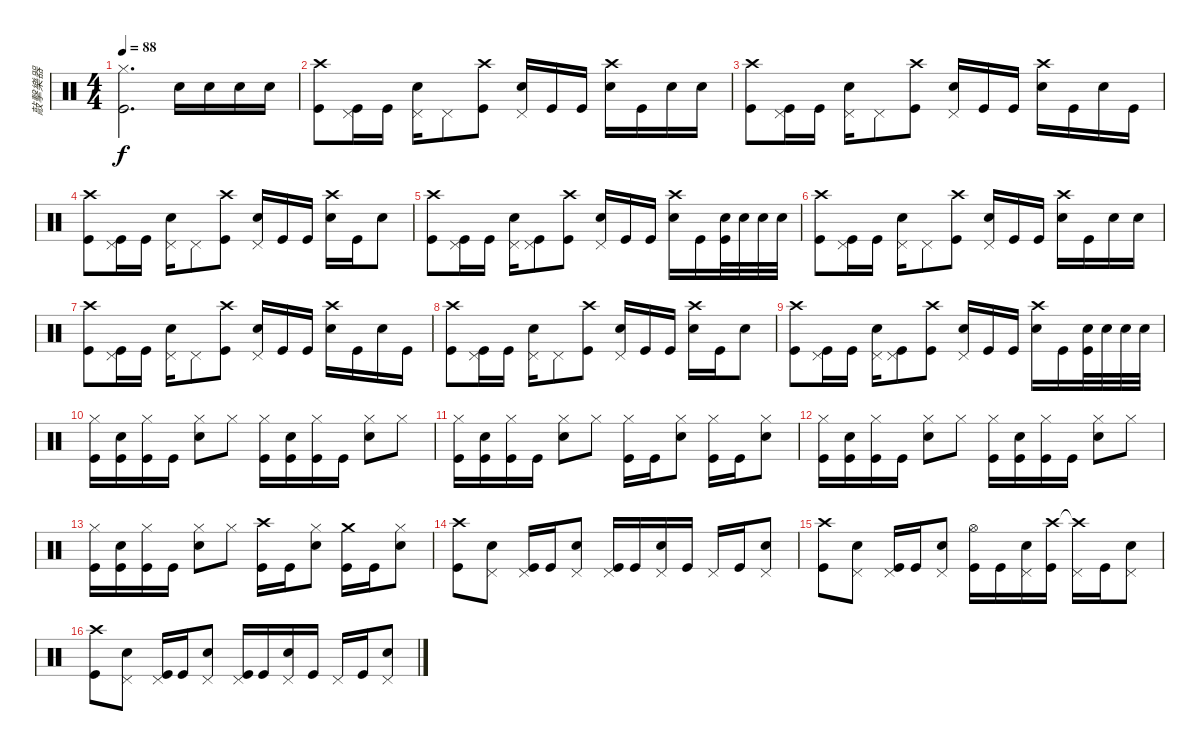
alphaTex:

\track ("敲擊樂器" "敲擊樂器") {instrument percussion}
\staff {score}
\articulation defaults
\ts (4 4)
\tempo 88
\clef neutral
\ks c
("Hi-Hat (closed)" "Kick (hit)").2{d dy f} "Snare (hit) 2".16 "Snare (hit) 2".16 "Snare (hit) 2".16 "Snare (hit) 2".16 |
("Crash high (hit)" "Kick (hit)").8 ("Pedal Hi-Hat (hit)" "Kick (hit)").16 "Kick (hit)".16 ("Pedal Hi-Hat (hit)" "Snare (hit) 2").16 "Pedal Hi-Hat (hit)".8 ("Crash high (hit)" "Kick (hit)").8 ("Pedal Hi-Hat (hit)" "Snare (hit) 2").16 "Kick (hit)".16 "Kick (hit)".16 ("Crash high (hit)" "Snare (hit) 2").16 "Kick (hit)".16 "Snare (hit) 2".16 "Snare (hit) 2".16 |
("Crash high (hit)" "Kick (hit)").8 ("Pedal Hi-Hat (hit)" "Kick (hit)").16 "Kick (hit)".16 ("Pedal Hi-Hat (hit)" "Snare (hit) 2").16 "Pedal Hi-Hat (hit)".8 ("Crash high (hit)" "Kick (hit)").8 ("Pedal Hi-Hat (hit)" "Snare (hit) 2").16 "Kick (hit)".16 "Kick (hit)".16 ("Crash high (hit)" "Snare (hit) 2").16 "Kick (hit)".16 "Snare (hit) 2".16 "Kick (hit)".16 |
("Crash high (hit)" "Kick (hit)").8 ("Pedal Hi-Hat (hit)" "Kick (hit)").16 "Kick (hit)".16 ("Pedal Hi-Hat (hit)" "Snare (hit) 2").16 "Pedal Hi-Hat (hit)".8 ("Crash high (hit)" "Kick (hit)").8 ("Pedal Hi-Hat (hit)" "Snare (hit) 2").16 "Kick (hit)".16 "Kick (hit)".16 ("Crash high (hit)" "Snare (hit) 2").16 "Kick (hit)".16 "Snare (hit) 2".8 |
("Crash high (hit)" "Kick (hit)").8 ("Pedal Hi-Hat (hit)" "Kick (hit)").16 "Kick (hit)".16 ("Pedal Hi-Hat (hit)" "Snare (hit) 2").16 ("Pedal Hi-Hat (hit)" "Kick (hit)").8 ("Crash high (hit)" "Kick (hit)").8 ("Pedal Hi-Hat (hit)" "Snare (hit) 2").16 "Kick (hit)".16 "Kick (hit)".16 ("Crash high (hit)" "Snare (hit) 2").16 "Kick (hit)".16 ("Snare (hit) 2" "Kick (hit)").32 "Snare (hit) 2".32 "Snare (hit) 2".32 "Snare (hit) 2".32 |
("Crash high (hit)" "Kick (hit)").8 ("Pedal Hi-Hat (hit)" "Kick (hit)").16 "Kick (hit)".16 ("Pedal Hi-Hat (hit)" "Snare (hit) 2").16 "Pedal Hi-Hat (hit)".8 ("Crash high (hit)" "Kick (hit)").8 ("Pedal Hi-Hat (hit)" "Snare (hit) 2").16 "Kick (hit)".16 "Kick (hit)".16 ("Crash high (hit)" "Snare (hit) 2").16 "Kick (hit)".16 "Snare (hit) 2".16 "Snare (hit) 2".16 |
("Crash high (hit)" "Kick (hit)").8 ("Pedal Hi-Hat (hit)" "Kick (hit)").16 "Kick (hit)".16 ("Pedal Hi-Hat (hit)" "Snare (hit) 2").16 "Pedal Hi-Hat (hit)".8 ("Crash high (hit)" "Kick (hit)").8 ("Pedal Hi-Hat (hit)" "Snare (hit) 2").16 "Kick (hit)".16 "Kick (hit)".16 ("Crash high (hit)" "Snare (hit) 2").16 "Kick (hit)".16 "Snare (hit) 2".16 "Kick (hit)".16 |
("Crash high (hit)" "Kick (hit)").8 ("Pedal Hi-Hat (hit)" "Kick (hit)").16 "Kick (hit)".16 ("Pedal Hi-Hat (hit)" "Snare (hit) 2").16 "Pedal Hi-Hat (hit)".8 ("Crash high (hit)" "Kick (hit)").8 ("Pedal Hi-Hat (hit)" "Snare (hit) 2").16 "Kick (hit)".16 "Kick (hit)".16 ("Crash high (hit)" "Snare (hit) 2").16 "Kick (hit)".16 "Snare (hit) 2".8 |
("Crash high (hit)" "Kick (hit)").8 ("Pedal Hi-Hat (hit)" "Kick (hit)").16 "Kick (hit)".16 ("Pedal Hi-Hat (hit)" "Snare (hit) 2").16 ("Pedal Hi-Hat (hit)" "Kick (hit)").8 ("Crash high (hit)" "Kick (hit)").8 ("Pedal Hi-Hat (hit)" "Snare (hit) 2").16 "Kick (hit)".16 "Kick (hit)".16 ("Crash high (hit)" "Snare (hit) 2").16 "Kick (hit)".16 ("Snare (hit) 2" "Kick (hit)").32 "Snare (hit) 2".32 "Snare (hit) 2".32 "Snare (hit) 2".32 |
("Hi-Hat (closed)" "Kick (hit)").16 ("Snare (hit) 2" "Kick (hit)").16 ("Hi-Hat (closed)" "Kick (hit)").16 "Kick (hit)".16 ("Hi-Hat (closed)" "Snare (hit) 2").8 "Hi-Hat (closed)".8 ("Hi-Hat (closed)" "Kick (hit)").16 ("Snare (hit) 2" "Kick (hit)").16 ("Hi-Hat (closed)" "Kick (hit)").16 "Kick (hit)".16 ("Hi-Hat (closed)" "Snare (hit) 2").8 "Hi-Hat (closed)".8 |
("Hi-Hat (closed)" "Kick (hit)").16 ("Snare (hit) 2" "Kick (hit)").16 ("Hi-Hat (closed)" "Kick (hit)").16 "Kick (hit)".16 ("Hi-Hat (closed)" "Snare (hit) 2").8 "Hi-Hat (closed)".8 ("Hi-Hat (closed)" "Kick (hit)").16 "Kick (hit)".16 ("Hi-Hat (closed)" "Snare (hit) 2").8 ("Hi-Hat (closed)" "Kick (hit)").16 "Kick (hit)".16 ("Hi-Hat (closed)" "Snare (hit) 2").8 |
("Hi-Hat (closed)" "Kick (hit)").16 ("Snare (hit) 2" "Kick (hit)").16 ("Hi-Hat (closed)" "Kick (hit)").16 "Kick (hit)".16 ("Hi-Hat (closed)" "Snare (hit) 2").8 "Hi-Hat (closed)".8 ("Hi-Hat (closed)" "Kick (hit)").16 ("Snare (hit) 2" "Kick (hit)").16 ("Hi-Hat (closed)" "Kick (hit)").16 "Kick (hit)".16 ("Hi-Hat (closed)" "Snare (hit) 2").8 "Hi-Hat (closed)".8 |
("Hi-Hat (closed)" "Kick (hit)").16 ("Snare (hit) 2" "Kick (hit)").16 ("Hi-Hat (closed)" "Kick (hit)").16 "Kick (hit)".16 ("Hi-Hat (closed)" "Snare (hit) 2").8 "Hi-Hat (closed)".8 ("Crash high (hit)" "Kick (hit)").16 "Kick (hit)".16 ("Hi-Hat (closed)" "Snare (hit) 2").8 ("Crash medium (hit)" "Kick (hit)").16 "Kick (hit)".16 ("Hi-Hat (closed)" "Snare (hit) 2").8 |
("Crash high (hit)" "Kick (hit)").8 ("Pedal Hi-Hat (hit)" "Snare (hit) 2").8 ("Pedal Hi-Hat (hit)" "Kick (hit)").16 "Kick (hit)".16 ("Pedal Hi-Hat (hit)" "Snare (hit) 2").8 ("Pedal Hi-Hat (hit)" "Kick (hit)").16 "Kick (hit)".16 ("Pedal Hi-Hat (hit)" "Snare (hit) 2").16 "Kick (hit)".16 "Pedal Hi-Hat (hit)".16 "Kick (hit)".16 ("Pedal Hi-Hat (hit)" "Snare (hit) 2").8 |
("Crash high (hit)" "Kick (hit)").8 ("Pedal Hi-Hat (hit)" "Snare (hit) 2").8 ("Pedal Hi-Hat (hit)" "Kick (hit)").16 "Kick (hit)".16 ("Pedal Hi-Hat (hit)" "Snare (hit) 2").8 ("Hi-Hat (open)" "Kick (hit)").16 "Kick (hit)".16 ("Pedal Hi-Hat (hit)" "Snare (hit) 2").16 ("Crash high (hit)" "Kick (hit)").16 ("Crash high (hit)"{t} "Pedal Hi-Hat (hit)").16 "Kick (hit)".16 ("Pedal Hi-Hat (hit)" "Snare (hit) 2").8 |
("Crash high (hit)" "Kick (hit)").8 ("Pedal Hi-Hat (hit)" "Snare (hit) 2").8 ("Pedal Hi-Hat (hit)" "Kick (hit)").16 "Kick (hit)".16 ("Pedal Hi-Hat (hit)" "Snare (hit) 2").8 ("Pedal Hi-Hat (hit)" "Kick (hit)").16 "Kick (hit)".16 ("Pedal Hi-Hat (hit)" "Snare (hit) 2").16 "Kick (hit)".16 "Pedal Hi-Hat (hit)".16 "Kick (hit)".16 ("Pedal Hi-Hat (hit)" "Snare (hit) 2").8
